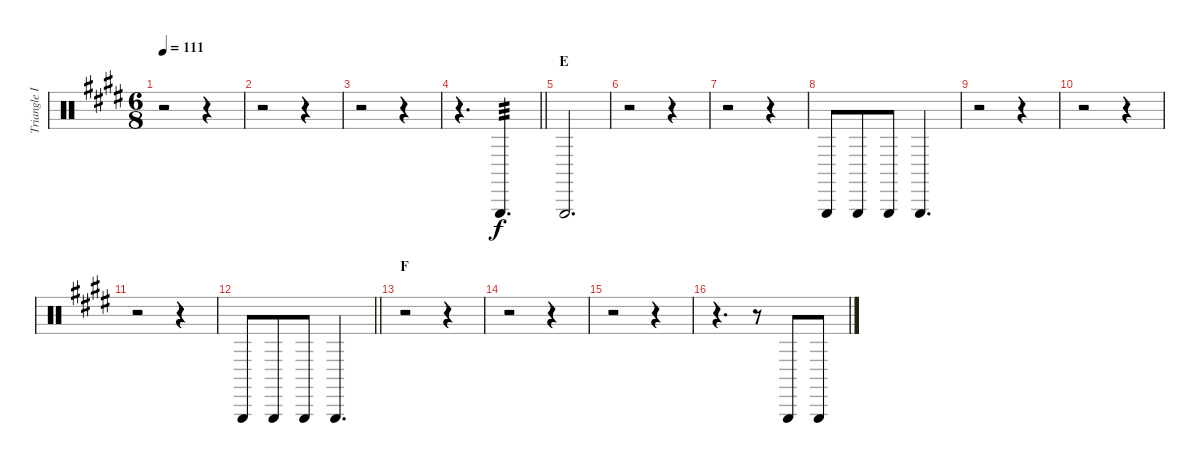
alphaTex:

\track ("Triangle II" "Triangle I") {instrument percussion}
\staff {score}
\articulation defaults
\ts (6 8)
\tempo 111
\clef neutral
\ks e
r.2{dy f} r.4 |
r.2 r.4 |
r.2 r.4 |
\barLineRight lightlight
r.4{d} "Triangle (hit)".4{d tp 3} |
\section ("" "E")
"Triangle (hit)".2{d} |
r.2 r.4 |
r.2 r.4 |
"Triangle (hit)".8 "Triangle (hit)".8 "Triangle (hit)".8 "Triangle (hit)".4{d} |
r.2 r.4 |
r.2 r.4 |
r.2 r.4 |
\barLineRight lightlight "Triangle (hit)".8 "Triangle (hit)".8 "Triangle (hit)".8 "Triangle (hit)".4{d}
|
\section ("" "F")
r.2 r.4 |
r.2 r.4 |
r.2 r.4 |
r.4{d} r.8 "Triangle (hit)".8 "Triangle (hit)".8
